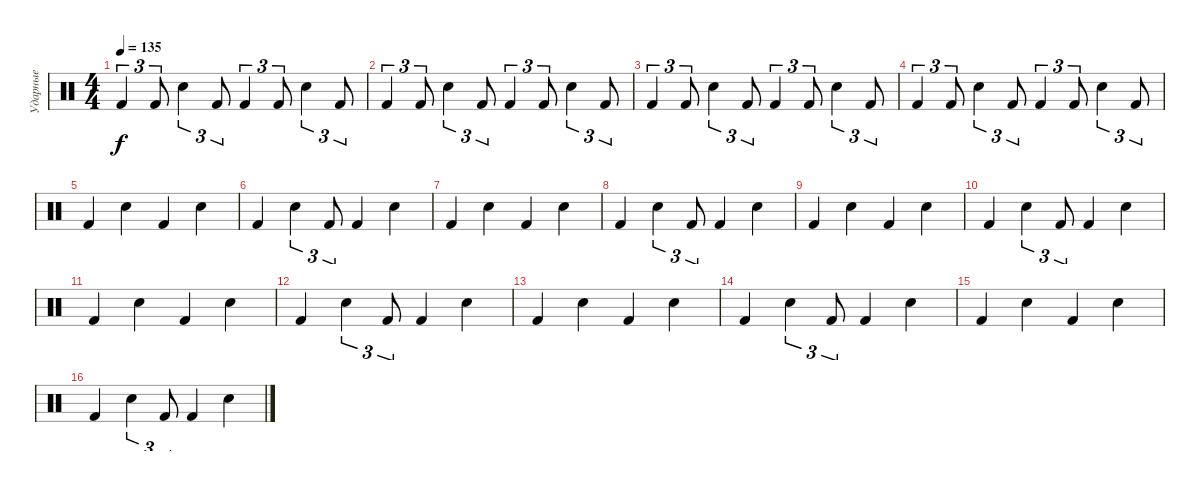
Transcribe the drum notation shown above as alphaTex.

\track ("Ударные" "Ударные") {instrument percussion}
\staff {score}
\articulation defaults
\ts (4 4)
\tempo 135
\clef neutral
\ks c "Kick (hit) 2".4{tu (3 2) dy f} "Kick (hit) 2".8{tu (3 2)} "Electric Snare (hit)".4{tu (3 2)} "Kick (hit) 2".8{tu (3 2)} "Kick (hit) 2".4{tu (3 2)} "Kick (hit) 2".8{tu (3 2)} "Electric Snare (hit)".4{tu (3 2)} "Kick (hit) 2".8{tu (3 2)}
|
"Kick (hit) 2".4{tu (3 2)} "Kick (hit) 2".8{tu (3 2)} "Electric Snare (hit)".4{tu (3 2)} "Kick (hit) 2".8{tu (3 2)} "Kick (hit) 2".4{tu (3 2)} "Kick (hit) 2".8{tu (3 2)} "Electric Snare (hit)".4{tu (3 2)} "Kick (hit) 2".8{tu (3 2)} |
"Kick (hit) 2".4{tu (3 2)} "Kick (hit) 2".8{tu (3 2)} "Electric Snare (hit)".4{tu (3 2)} "Kick (hit) 2".8{tu (3 2)} "Kick (hit) 2".4{tu (3 2)} "Kick (hit) 2".8{tu (3 2)} "Electric Snare (hit)".4{tu (3 2)} "Kick (hit) 2".8{tu (3 2)} |
"Kick (hit) 2".4{tu (3 2)} "Kick (hit) 2".8{tu (3 2)} "Electric Snare (hit)".4{tu (3 2)} "Kick (hit) 2".8{tu (3 2)} "Kick (hit) 2".4{tu (3 2)} "Kick (hit) 2".8{tu (3 2)} "Electric Snare (hit)".4{tu (3 2)} "Kick (hit) 2".8{tu (3 2)} |
"Kick (hit) 2".4 "Electric Snare (hit)".4 "Kick (hit) 2".4 "Electric Snare (hit)".4 |
"Kick (hit) 2".4 "Electric Snare (hit)".4{tu (3 2)} "Kick (hit) 2".8{tu (3 2)} "Kick (hit) 2".4 "Electric Snare (hit)".4 |
"Kick (hit) 2".4 "Electric Snare (hit)".4 "Kick (hit) 2".4 "Electric Snare (hit)".4 |
"Kick (hit) 2".4 "Electric Snare (hit)".4{tu (3 2)} "Kick (hit) 2".8{tu (3 2)} "Kick (hit) 2".4 "Electric Snare (hit)".4 |
"Kick (hit) 2".4 "Electric Snare (hit)".4 "Kick (hit) 2".4 "Electric Snare (hit)".4 |
"Kick (hit) 2".4 "Electric Snare (hit)".4{tu (3 2)} "Kick (hit) 2".8{tu (3 2)} "Kick (hit) 2".4 "Electric Snare (hit)".4 |
"Kick (hit) 2".4 "Electric Snare (hit)".4 "Kick (hit) 2".4 "Electric Snare (hit)".4 |
"Kick (hit) 2".4 "Electric Snare (hit)".4{tu (3 2)} "Kick (hit) 2".8{tu (3 2)} "Kick (hit) 2".4 "Electric Snare (hit)".4 |
"Kick (hit) 2".4 "Electric Snare (hit)".4 "Kick (hit) 2".4 "Electric Snare (hit)".4 |
"Kick (hit) 2".4 "Electric Snare (hit)".4{tu (3 2)} "Kick (hit) 2".8{tu (3 2)} "Kick (hit) 2".4 "Electric Snare (hit)".4 |
"Kick (hit) 2".4 "Electric Snare (hit)".4 "Kick (hit) 2".4 "Electric Snare (hit)".4 |
"Kick (hit) 2".4 "Electric Snare (hit)".4{tu (3 2)} "Kick (hit) 2".8{tu (3 2)} "Kick (hit) 2".4 "Electric Snare (hit)".4
